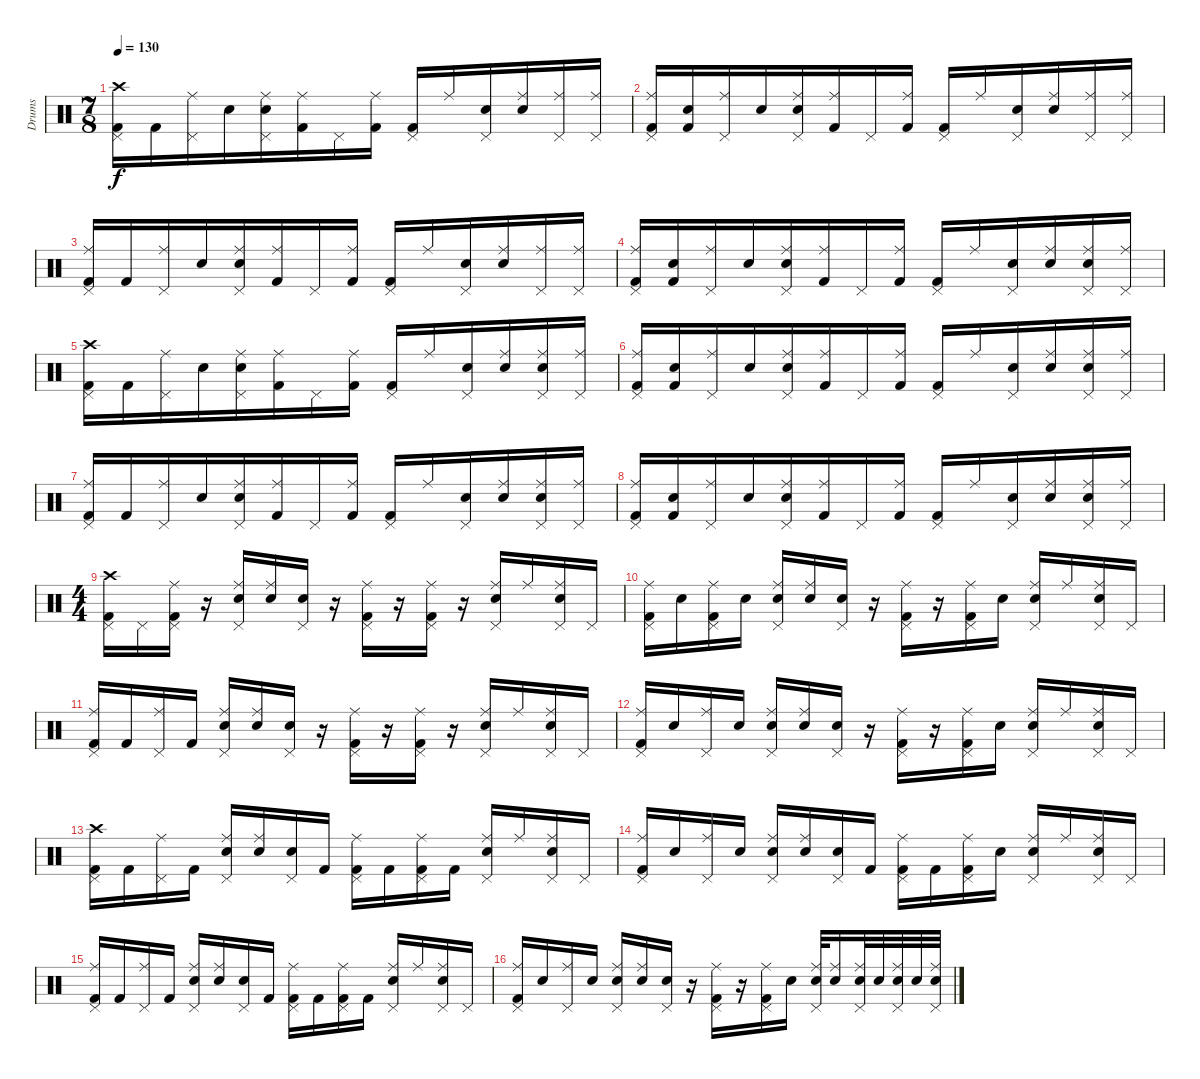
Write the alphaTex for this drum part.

\track ("Drums" "Drums") {instrument percussion}
\staff {score}
\articulation defaults
\ts (7 8)
\tempo 130
\clef neutral
\ks c
("Crash high (hit)" "Kick (hit) 2" "Pedal Hi-Hat (hit)").16{dy f} "Kick (hit) 2".16 ("Ride (middle)" "Pedal Hi-Hat (hit)").16 "Snare (hit) 2".16 ("Ride (middle)" "Electric Snare (hit)" "Pedal Hi-Hat (hit)").16 ("Ride (middle)" "Kick (hit) 2").16 "Pedal Hi-Hat (hit)".16 ("Ride (middle)" "Kick (hit) 2").16 ("Kick (hit) 2" "Pedal Hi-Hat (hit)").16 "Ride (middle)".16 ("Electric Snare (hit)" "Pedal Hi-Hat (hit)").16 ("Ride (middle)" "Electric Snare (hit)").16 ("Ride (middle)" "Pedal Hi-Hat (hit)").16 ("Ride (middle)" "Pedal Hi-Hat (hit)").16 |
("Ride (middle)" "Kick (hit) 2" "Pedal Hi-Hat (hit)").16 ("Electric Snare (hit)" "Kick (hit) 2").16 ("Ride (middle)" "Pedal Hi-Hat (hit)").16 "Snare (hit) 2".16 ("Ride (middle)" "Electric Snare (hit)" "Pedal Hi-Hat (hit)").16 ("Ride (middle)" "Kick (hit) 2").16 "Pedal Hi-Hat (hit)".16 ("Ride (middle)" "Kick (hit) 2").16 ("Kick (hit) 2" "Pedal Hi-Hat (hit)").16 "Ride (middle)".16 ("Electric Snare (hit)" "Pedal Hi-Hat (hit)").16 ("Ride (middle)" "Electric Snare (hit)").16 ("Ride (middle)" "Pedal Hi-Hat (hit)").16 ("Ride (middle)" "Pedal Hi-Hat (hit)").16 |
("Ride (middle)" "Kick (hit) 2" "Pedal Hi-Hat (hit)").16 "Kick (hit) 2".16 ("Ride (middle)" "Pedal Hi-Hat (hit)").16 "Snare (hit) 2".16 ("Ride (middle)" "Electric Snare (hit)" "Pedal Hi-Hat (hit)").16 ("Ride (middle)" "Kick (hit) 2").16 "Pedal Hi-Hat (hit)".16 ("Ride (middle)" "Kick (hit) 2").16 ("Kick (hit) 2" "Pedal Hi-Hat (hit)").16 "Ride (middle)".16 ("Electric Snare (hit)" "Pedal Hi-Hat (hit)").16 ("Ride (middle)" "Electric Snare (hit)").16 ("Ride (middle)" "Pedal Hi-Hat (hit)").16 ("Ride (middle)" "Pedal Hi-Hat (hit)").16 |
("Ride (middle)" "Kick (hit) 2" "Pedal Hi-Hat (hit)").16 ("Electric Snare (hit)" "Kick (hit) 2").16 ("Ride (middle)" "Pedal Hi-Hat (hit)").16 "Snare (hit) 2".16 ("Ride (middle)" "Electric Snare (hit)" "Pedal Hi-Hat (hit)").16 ("Ride (middle)" "Kick (hit) 2").16 "Pedal Hi-Hat (hit)".16 ("Ride (middle)" "Kick (hit) 2").16 ("Kick (hit) 2" "Pedal Hi-Hat (hit)").16 "Ride (middle)".16 ("Electric Snare (hit)" "Pedal Hi-Hat (hit)").16 ("Ride (middle)" "Electric Snare (hit)").16 ("Ride (middle)" "Snare (hit) 2" "Pedal Hi-Hat (hit)").16 ("Ride (middle)" "Pedal Hi-Hat (hit)").16 |
("Crash high (hit)" "Kick (hit) 2" "Pedal Hi-Hat (hit)").16 "Kick (hit) 2".16 ("Ride (middle)" "Pedal Hi-Hat (hit)").16 "Snare (hit) 2".16 ("Ride (middle)" "Electric Snare (hit)" "Pedal Hi-Hat (hit)").16 ("Ride (middle)" "Kick (hit) 2").16 "Pedal Hi-Hat (hit)".16 ("Ride (middle)" "Kick (hit) 2").16 ("Kick (hit) 2" "Pedal Hi-Hat (hit)").16 "Ride (middle)".16 ("Electric Snare (hit)" "Pedal Hi-Hat (hit)").16 ("Ride (middle)" "Electric Snare (hit)").16 ("Ride (middle)" "Snare (hit) 2" "Pedal Hi-Hat (hit)").16 ("Ride (middle)" "Pedal Hi-Hat (hit)").16 |
("Ride (middle)" "Kick (hit) 2" "Pedal Hi-Hat (hit)").16 ("Electric Snare (hit)" "Kick (hit) 2").16 ("Ride (middle)" "Pedal Hi-Hat (hit)").16 "Snare (hit) 2".16 ("Ride (middle)" "Electric Snare (hit)" "Pedal Hi-Hat (hit)").16 ("Ride (middle)" "Kick (hit) 2").16 "Pedal Hi-Hat (hit)".16 ("Ride (middle)" "Kick (hit) 2").16 ("Kick (hit) 2" "Pedal Hi-Hat (hit)").16 "Ride (middle)".16 ("Electric Snare (hit)" "Pedal Hi-Hat (hit)").16 ("Ride (middle)" "Electric Snare (hit)").16 ("Ride (middle)" "Snare (hit) 2" "Pedal Hi-Hat (hit)").16 ("Ride (middle)" "Pedal Hi-Hat (hit)").16 |
("Ride (middle)" "Kick (hit) 2" "Pedal Hi-Hat (hit)").16 "Kick (hit) 2".16 ("Ride (middle)" "Pedal Hi-Hat (hit)").16 "Snare (hit) 2".16 ("Ride (middle)" "Electric Snare (hit)" "Pedal Hi-Hat (hit)").16 ("Ride (middle)" "Kick (hit) 2").16 "Pedal Hi-Hat (hit)".16 ("Ride (middle)" "Kick (hit) 2").16 ("Kick (hit) 2" "Pedal Hi-Hat (hit)").16 "Ride (middle)".16 ("Electric Snare (hit)" "Pedal Hi-Hat (hit)").16 ("Ride (middle)" "Electric Snare (hit)").16 ("Ride (middle)" "Snare (hit) 2" "Pedal Hi-Hat (hit)").16 ("Ride (middle)" "Pedal Hi-Hat (hit)").16 |
("Ride (middle)" "Kick (hit) 2" "Pedal Hi-Hat (hit)").16 ("Electric Snare (hit)" "Kick (hit) 2").16 ("Ride (middle)" "Pedal Hi-Hat (hit)").16 "Snare (hit) 2".16 ("Ride (middle)" "Electric Snare (hit)" "Pedal Hi-Hat (hit)").16 ("Ride (middle)" "Kick (hit) 2").16 "Pedal Hi-Hat (hit)".16 ("Ride (middle)" "Kick (hit) 2").16 ("Kick (hit) 2" "Pedal Hi-Hat (hit)").16 "Ride (middle)".16 ("Electric Snare (hit)" "Pedal Hi-Hat (hit)").16 ("Ride (middle)" "Electric Snare (hit)").16 ("Ride (middle)" "Snare (hit) 2" "Pedal Hi-Hat (hit)").16 ("Ride (middle)" "Pedal Hi-Hat (hit)").16 |
\ts (4 4)
("Crash high (hit)" "Kick (hit) 2" "Pedal Hi-Hat (hit)").16 "Pedal Hi-Hat (hit)".16 ("Ride (middle)" "Kick (hit) 2" "Pedal Hi-Hat (hit)").16 r.16 ("Ride (middle)" "Electric Snare (hit)" "Pedal Hi-Hat (hit)").16 ("Ride (middle)" "Snare (hit) 2").16 ("Snare (hit) 2" "Pedal Hi-Hat (hit)").16 r.16 ("Ride (middle)" "Kick (hit) 2" "Pedal Hi-Hat (hit)").16 r.16 ("Ride (middle)" "Kick (hit) 2" "Pedal Hi-Hat (hit)").16 r.16 ("Ride (middle)" "Electric Snare (hit)" "Pedal Hi-Hat (hit)").16 "Ride (middle)".16 ("Ride (middle)" "Snare (hit) 2" "Pedal Hi-Hat (hit)").16 "Pedal Hi-Hat (hit)".16 |
("Ride (middle)" "Kick (hit) 2" "Pedal Hi-Hat (hit)").16 "Electric Snare (hit)".16 ("Ride (middle)" "Kick (hit) 2" "Pedal Hi-Hat (hit)").16 "Snare (hit) 2".16 ("Ride (middle)" "Electric Snare (hit)" "Pedal Hi-Hat (hit)").16 ("Ride (middle)" "Snare (hit) 2").16 ("Snare (hit) 2" "Pedal Hi-Hat (hit)").16 r.16 ("Ride (middle)" "Kick (hit) 2" "Pedal Hi-Hat (hit)").16 r.16 ("Ride (middle)" "Kick (hit) 2" "Pedal Hi-Hat (hit)").16 "Snare (hit) 2".16 ("Ride (middle)" "Electric Snare (hit)" "Pedal Hi-Hat (hit)").16 "Ride (middle)".16 ("Ride (middle)" "Snare (hit) 2" "Pedal Hi-Hat (hit)").16 "Pedal Hi-Hat (hit)".16 |
("Ride (middle)" "Kick (hit) 2" "Pedal Hi-Hat (hit)").16 "Kick (hit) 2".16 ("Ride (middle)" "Pedal Hi-Hat (hit)").16 "Kick (hit) 2".16 ("Ride (middle)" "Electric Snare (hit)" "Pedal Hi-Hat (hit)").16 ("Ride (middle)" "Snare (hit) 2").16 ("Snare (hit) 2" "Pedal Hi-Hat (hit)").16 r.16 ("Ride (middle)" "Kick (hit) 2" "Pedal Hi-Hat (hit)").16 r.16 ("Ride (middle)" "Kick (hit) 2" "Pedal Hi-Hat (hit)").16 r.16 ("Ride (middle)" "Electric Snare (hit)" "Pedal Hi-Hat (hit)").16 "Ride (middle)".16 ("Ride (middle)" "Snare (hit) 2" "Pedal Hi-Hat (hit)").16 "Pedal Hi-Hat (hit)".16 |
("Ride (middle)" "Kick (hit) 2" "Pedal Hi-Hat (hit)").16 "Electric Snare (hit)".16 ("Ride (middle)" "Pedal Hi-Hat (hit)").16 "Snare (hit) 2".16 ("Ride (middle)" "Electric Snare (hit)" "Pedal Hi-Hat (hit)").16 ("Ride (middle)" "Snare (hit) 2").16 ("Snare (hit) 2" "Pedal Hi-Hat (hit)").16 r.16 ("Ride (middle)" "Kick (hit) 2" "Pedal Hi-Hat (hit)").16 r.16 ("Ride (middle)" "Kick (hit) 2" "Pedal Hi-Hat (hit)").16 "Snare (hit) 2".16 ("Ride (middle)" "Electric Snare (hit)" "Pedal Hi-Hat (hit)").16 "Ride (middle)".16 ("Ride (middle)" "Snare (hit) 2" "Pedal Hi-Hat (hit)").16 "Pedal Hi-Hat (hit)".16 |
("Crash high (hit)" "Kick (hit) 2" "Pedal Hi-Hat (hit)").16 "Kick (hit) 2".16 ("Ride (middle)" "Pedal Hi-Hat (hit)").16 "Kick (hit) 2".16 ("Ride (middle)" "Electric Snare (hit)" "Pedal Hi-Hat (hit)").16 ("Ride (middle)" "Snare (hit) 2").16 ("Snare (hit) 2" "Pedal Hi-Hat (hit)").16 "Kick (hit) 2".16 ("Ride (middle)" "Kick (hit) 2" "Pedal Hi-Hat (hit)").16 "Kick (hit) 2".16 ("Ride (middle)" "Kick (hit) 2" "Pedal Hi-Hat (hit)").16 "Kick (hit) 2".16 ("Ride (middle)" "Electric Snare (hit)" "Pedal Hi-Hat (hit)").16 "Ride (middle)".16 ("Ride (middle)" "Snare (hit) 2" "Pedal Hi-Hat (hit)").16 "Pedal Hi-Hat (hit)".16 |
("Ride (middle)" "Kick (hit) 2" "Pedal Hi-Hat (hit)").16 "Electric Snare (hit)".16 ("Ride (middle)" "Pedal Hi-Hat (hit)").16 "Snare (hit) 2".16 ("Ride (middle)" "Electric Snare (hit)" "Pedal Hi-Hat (hit)").16 ("Ride (middle)" "Snare (hit) 2").16 ("Snare (hit) 2" "Pedal Hi-Hat (hit)").16 "Kick (hit) 2".16 ("Ride (middle)" "Kick (hit) 2" "Pedal Hi-Hat (hit)").16 "Kick (hit) 2".16 ("Ride (middle)" "Kick (hit) 2" "Pedal Hi-Hat (hit)").16 "Snare (hit) 2".16 ("Ride (middle)" "Electric Snare (hit)" "Pedal Hi-Hat (hit)").16 "Ride (middle)".16 ("Ride (middle)" "Snare (hit) 2" "Pedal Hi-Hat (hit)").16 "Pedal Hi-Hat (hit)".16 |
("Ride (middle)" "Kick (hit) 2" "Pedal Hi-Hat (hit)").16 "Kick (hit) 2".16 ("Ride (middle)" "Pedal Hi-Hat (hit)").16 "Kick (hit) 2".16 ("Ride (middle)" "Electric Snare (hit)" "Pedal Hi-Hat (hit)").16 ("Ride (middle)" "Snare (hit) 2").16 ("Snare (hit) 2" "Pedal Hi-Hat (hit)").16 "Kick (hit) 2".16 ("Ride (middle)" "Kick (hit) 2" "Pedal Hi-Hat (hit)").16 "Kick (hit) 2".16 ("Ride (middle)" "Kick (hit) 2" "Pedal Hi-Hat (hit)").16 "Kick (hit) 2".16 ("Ride (middle)" "Electric Snare (hit)" "Pedal Hi-Hat (hit)").16 "Ride (middle)".16 ("Ride (middle)" "Snare (hit) 2" "Pedal Hi-Hat (hit)").16 "Pedal Hi-Hat (hit)".16 |
("Ride (middle)" "Kick (hit) 2" "Pedal Hi-Hat (hit)").16 "Electric Snare (hit)".16 ("Ride (middle)" "Pedal Hi-Hat (hit)").16 "Snare (hit) 2".16 ("Ride (middle)" "Electric Snare (hit)" "Pedal Hi-Hat (hit)").16 ("Ride (middle)" "Snare (hit) 2").16 ("Snare (hit) 2" "Pedal Hi-Hat (hit)").16 r.16 ("Ride (middle)" "Kick (hit) 2" "Pedal Hi-Hat (hit)").16 r.16 ("Ride (middle)" "Kick (hit) 2" "Pedal Hi-Hat (hit)").16 "Snare (hit) 2".16 ("Ride (middle)" "Electric Snare (hit)" "Pedal Hi-Hat (hit)").32 ("Ride (middle)" "Electric Snare (hit)").16 ("Ride (middle)" "Electric Snare (hit)" "Pedal Hi-Hat (hit)").32 "Electric Snare (hit)".32 ("Ride (middle)" "Electric Snare (hit)" "Pedal Hi-Hat (hit)").32 "Electric Snare (hit)".32 ("Ride (middle)" "Electric Snare (hit)" "Pedal Hi-Hat (hit)").32
